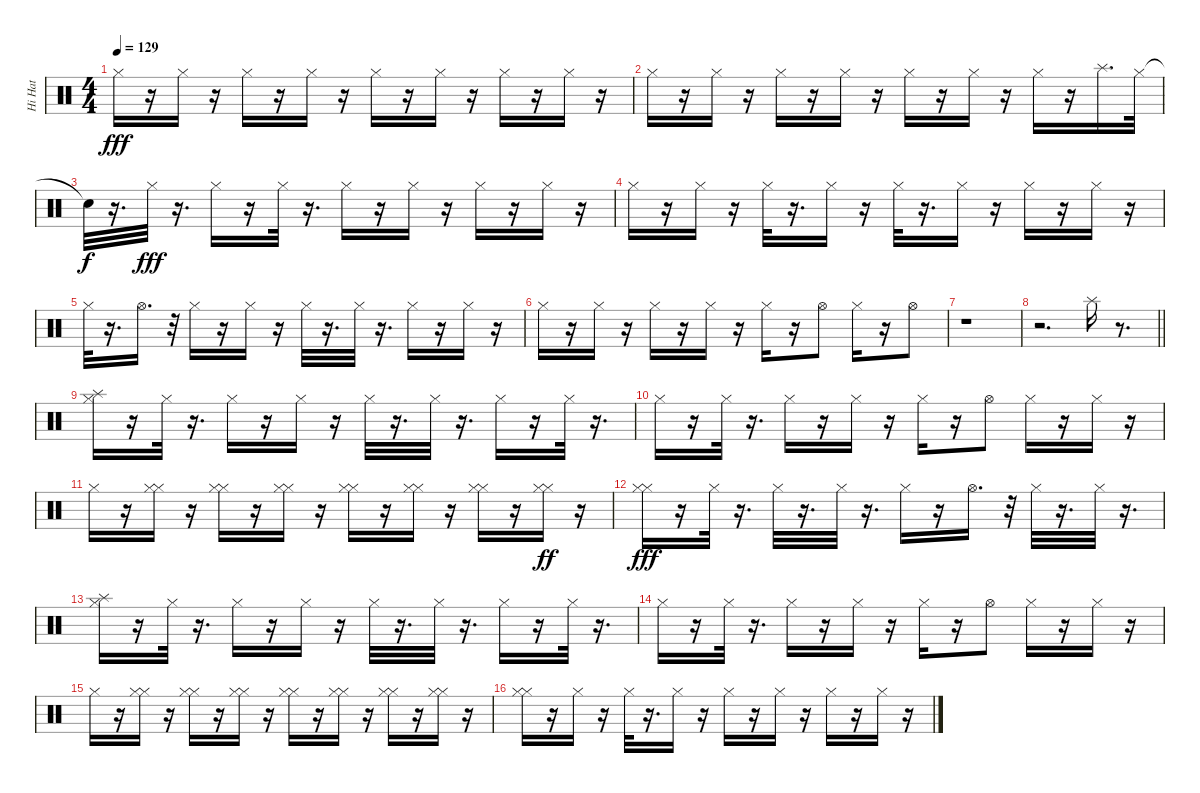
\track ("Hi Hat" "Hi Hat") {instrument percussion}
\staff {score}
\articulation defaults
\ts (4 4)
\tempo 129
\clef neutral
\ks c "Hi-Hat (closed)".16{dy fff}
r.16 "Hi-Hat (closed)".16 r.16 "Hi-Hat (closed)".16 r.16 "Hi-Hat (closed)".16 r.16 "Hi-Hat (closed)".16 r.16 "Hi-Hat (closed)".16 r.16 "Hi-Hat (closed)".16 r.16 "Hi-Hat (closed)".16 r.16 |
"Hi-Hat (closed)".16 r.16 "Hi-Hat (closed)".16 r.16 "Hi-Hat (closed)".16 r.16 "Hi-Hat (closed)".16 r.16 "Hi-Hat (closed)".16 r.16 "Hi-Hat (closed)".16 r.16 "Hi-Hat (closed)".16 r.16 "Splash (hit)".16{d} "Hi-Hat (closed)".32 |
"Snare (hit)"{t}.32{dy f} r.16{d} "Hi-Hat (closed)".32{dy fff} r.16{d} "Hi-Hat (closed)".16 r.16 "Hi-Hat (closed)".32 r.16{d} "Hi-Hat (closed)".16 r.16 "Hi-Hat (closed)".16 r.16 "Hi-Hat (closed)".16 r.16 "Hi-Hat (closed)".16 r.16 |
"Hi-Hat (closed)".16 r.16 "Hi-Hat (closed)".16 r.16 "Hi-Hat (closed)".32 r.16{d} "Hi-Hat (closed)".16 r.16 "Hi-Hat (closed)".32 r.16{d} "Hi-Hat (closed)".16 r.16 "Hi-Hat (closed)".16 r.16 "Hi-Hat (closed)".16 r.16 |
"Hi-Hat (closed)".32 r.16{d} "Hi-Hat (open)".16{d} r.32 "Hi-Hat (closed)".16 r.16 "Hi-Hat (closed)".16 r.16 "Hi-Hat (closed)".32 r.16{d} "Hi-Hat (closed)".32 r.16{d} "Hi-Hat (closed)".16 r.16 "Hi-Hat (closed)".16 r.16 |
"Hi-Hat (closed)".16 r.16 "Hi-Hat (closed)".16 r.16 "Hi-Hat (closed)".16 r.16 "Hi-Hat (closed)".16 r.16 "Hi-Hat (closed)".16 r.16 "Hi-Hat (open)".8 "Hi-Hat (closed)".16 r.16 "Hi-Hat (open)".8 |
r.1 |
\barLineRight lightlight
r.2{d} "Splash (hit)".16 r.8{d} |
("Hi-Hat (closed)" "Splash (hit)").16 r.16 "Hi-Hat (closed)".32 r.16{d} "Hi-Hat (closed)".16 r.16 "Hi-Hat (closed)".16 r.16 "Hi-Hat (closed)".32 r.16{d} "Hi-Hat (closed)".32 r.16{d} "Hi-Hat (closed)".16 r.16 "Hi-Hat (closed)".32 r.16{d} |
"Hi-Hat (closed)".16 r.16 "Hi-Hat (closed)".32 r.16{d} "Hi-Hat (closed)".16 r.16 "Hi-Hat (closed)".16 r.16 "Hi-Hat (closed)".16 r.16 "Hi-Hat (open)".8 "Hi-Hat (closed)".16 r.16 "Hi-Hat (closed)".16 r.16 |
"Hi-Hat (closed)".16 r.16 ("Hi-Hat (closed)" "Hi-Hat (closed)").16 r.16 ("Hi-Hat (closed)" "Hi-Hat (closed)").16 r.16 ("Hi-Hat (closed)" "Hi-Hat (closed)").16 r.16 ("Hi-Hat (closed)" "Hi-Hat (closed)").16 r.16 ("Hi-Hat (closed)" "Hi-Hat (closed)").16 r.16 ("Hi-Hat (closed)" "Hi-Hat (closed)").16 r.16 ("Hi-Hat (closed)" "Hi-Hat (closed)").16{dy ff} r.16 |
("Hi-Hat (closed)" "Hi-Hat (closed)").16{dy fff} r.16 "Hi-Hat (closed)".32 r.16{d} "Hi-Hat (closed)".32 r.16{d} "Hi-Hat (closed)".32 r.16{d} "Hi-Hat (closed)".16 r.16 "Hi-Hat (open)".16{d} r.32 "Hi-Hat (closed)".32 r.16{d} "Hi-Hat (closed)".32 r.16{d} |
("Hi-Hat (closed)" "Splash (hit)").16 r.16 "Hi-Hat (closed)".32 r.16{d} "Hi-Hat (closed)".16 r.16 "Hi-Hat (closed)".16 r.16 "Hi-Hat (closed)".32 r.16{d} "Hi-Hat (closed)".32 r.16{d} "Hi-Hat (closed)".16 r.16 "Hi-Hat (closed)".32 r.16{d} |
"Hi-Hat (closed)".16 r.16 "Hi-Hat (closed)".32 r.16{d} "Hi-Hat (closed)".16 r.16 "Hi-Hat (closed)".16 r.16 "Hi-Hat (closed)".16 r.16 "Hi-Hat (open)".8 "Hi-Hat (closed)".16 r.16 "Hi-Hat (closed)".16 r.16 |
"Hi-Hat (closed)".16 r.16 ("Hi-Hat (closed)" "Hi-Hat (closed)").16 r.16 ("Hi-Hat (closed)" "Hi-Hat (closed)").16 r.16 ("Hi-Hat (closed)" "Hi-Hat (closed)").16 r.16 ("Hi-Hat (closed)" "Hi-Hat (closed)").16 r.16 ("Hi-Hat (closed)" "Hi-Hat (closed)").16 r.16 ("Hi-Hat (closed)" "Hi-Hat (closed)").16 r.16 ("Hi-Hat (closed)" "Hi-Hat (closed)").16 r.16 |
("Hi-Hat (closed)" "Hi-Hat (closed)").16 r.16 "Hi-Hat (closed)".16 r.16 "Hi-Hat (closed)".32 r.16{d} "Hi-Hat (closed)".16 r.16 "Hi-Hat (closed)".16 r.16 "Hi-Hat (closed)".16 r.16 "Hi-Hat (closed)".16 r.16 "Hi-Hat (closed)".16 r.16
